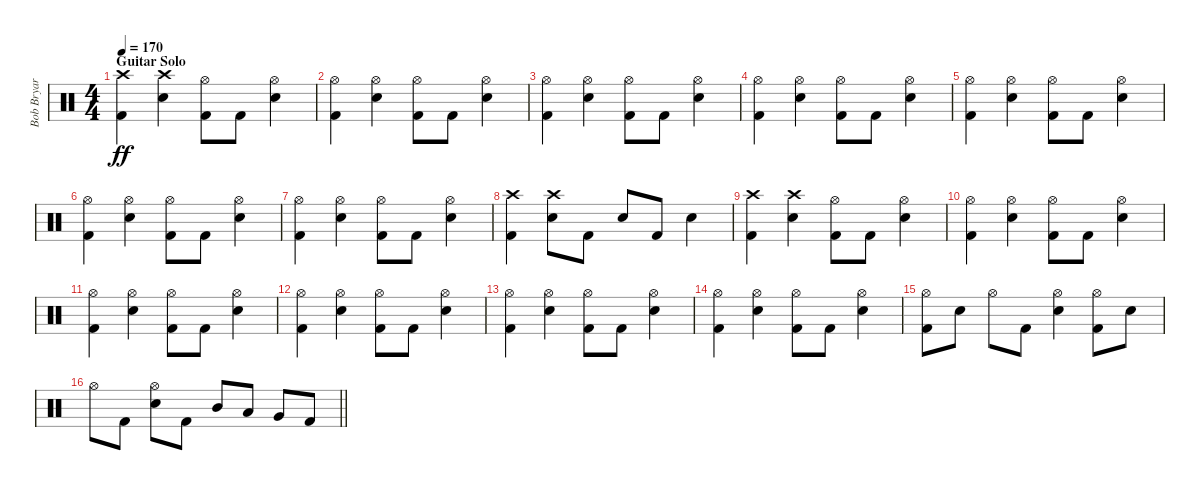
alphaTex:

\track ("Bob Bryar - Drums" "Bob Bryar ") {instrument percussion}
\staff {score}
\articulation defaults
\ts (4 4)
\section ("" "Guitar Solo")
\tempo 170
\clef neutral
\ks c
("Crash high (hit)" "Kick (hit) 2").4{dy ff} ("Crash high (hit)" "Snare (hit) 2").4 ("Hi-Hat (open)" "Kick (hit) 2").8 "Kick (hit) 2".8 ("Snare (hit) 2" "Hi-Hat (open)").4 |
("Hi-Hat (open)" "Kick (hit) 2").4 ("Snare (hit) 2" "Hi-Hat (open)").4 ("Hi-Hat (open)" "Kick (hit) 2").8 "Kick (hit) 2".8 ("Snare (hit) 2" "Hi-Hat (open)").4 |
("Hi-Hat (open)" "Kick (hit) 2").4 ("Snare (hit) 2" "Hi-Hat (open)").4 ("Hi-Hat (open)" "Kick (hit) 2").8 "Kick (hit) 2".8 ("Snare (hit) 2" "Hi-Hat (open)").4 |
("Hi-Hat (open)" "Kick (hit) 2").4 ("Snare (hit) 2" "Hi-Hat (open)").4 ("Hi-Hat (open)" "Kick (hit) 2").8 "Kick (hit) 2".8 ("Snare (hit) 2" "Hi-Hat (open)").4 |
("Hi-Hat (open)" "Kick (hit) 2").4 ("Snare (hit) 2" "Hi-Hat (open)").4 ("Hi-Hat (open)" "Kick (hit) 2").8 "Kick (hit) 2".8 ("Snare (hit) 2" "Hi-Hat (open)").4 |
("Hi-Hat (open)" "Kick (hit) 2").4 ("Snare (hit) 2" "Hi-Hat (open)").4 ("Hi-Hat (open)" "Kick (hit) 2").8 "Kick (hit) 2".8 ("Snare (hit) 2" "Hi-Hat (open)").4 |
("Hi-Hat (open)" "Kick (hit) 2").4 ("Snare (hit) 2" "Hi-Hat (open)").4 ("Hi-Hat (open)" "Kick (hit) 2").8 "Kick (hit) 2".8 ("Snare (hit) 2" "Hi-Hat (open)").4 |
("Crash high (hit)" "Kick (hit) 2").4 ("Snare (hit) 2" "Crash high (hit)").8 "Kick (hit) 2".8 "Snare (hit) 2".8 "Kick (hit) 2".8 "Snare (hit) 2".4 |
("Crash high (hit)" "Kick (hit) 2").4 ("Crash high (hit)" "Snare (hit) 2").4 ("Hi-Hat (open)" "Kick (hit) 2").8 "Kick (hit) 2".8 ("Snare (hit) 2" "Hi-Hat (open)").4 |
("Hi-Hat (open)" "Kick (hit) 2").4 ("Snare (hit) 2" "Hi-Hat (open)").4 ("Hi-Hat (open)" "Kick (hit) 2").8 "Kick (hit) 2".8 ("Snare (hit) 2" "Hi-Hat (open)").4 |
("Hi-Hat (open)" "Kick (hit) 2").4 ("Snare (hit) 2" "Hi-Hat (open)").4 ("Hi-Hat (open)" "Kick (hit) 2").8 "Kick (hit) 2".8 ("Snare (hit) 2" "Hi-Hat (open)").4 |
("Hi-Hat (open)" "Kick (hit) 2").4 ("Snare (hit) 2" "Hi-Hat (open)").4 ("Hi-Hat (open)" "Kick (hit) 2").8 "Kick (hit) 2".8 ("Snare (hit) 2" "Hi-Hat (open)").4 |
("Hi-Hat (open)" "Kick (hit) 2").4 ("Snare (hit) 2" "Hi-Hat (open)").4 ("Hi-Hat (open)" "Kick (hit) 2").8 "Kick (hit) 2".8 ("Snare (hit) 2" "Hi-Hat (open)").4 |
("Hi-Hat (open)" "Kick (hit) 2").4 ("Snare (hit) 2" "Hi-Hat (open)").4 ("Hi-Hat (open)" "Kick (hit) 2").8 "Kick (hit) 2".8 ("Snare (hit) 2" "Hi-Hat (open)").4 |
("Hi-Hat (open)" "Kick (hit) 2").8 "Snare (hit) 2".8 "Hi-Hat (open)".8 "Kick (hit) 2".8 ("Snare (hit) 2" "Hi-Hat (open)").4 ("Hi-Hat (open)" "Kick (hit) 2").8 "Snare (hit) 2".8 |
\barLineRight lightlight "Hi-Hat (open)".8 "Kick (hit) 2".8
("Snare (hit) 2" "Hi-Hat (open)").8 "Kick (hit) 2".8 "Mid Tom (hit)".8 "Low Tom (hit)".8 "Very Low Tom (hit)".8 "Kick (hit) 2".8
